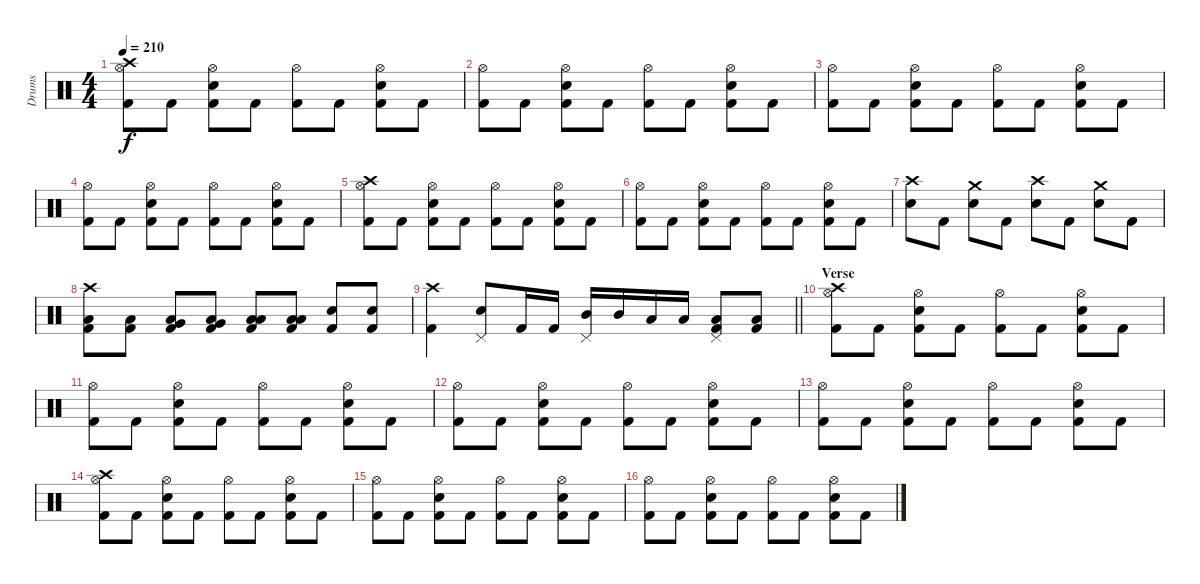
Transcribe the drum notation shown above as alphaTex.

\track ("Drums" "Drums") {instrument percussion}
\staff {score}
\articulation defaults
\ts (4 4)
\tempo 210
\clef neutral
\ks c
("Crash high (hit)" "Hi-Hat (open)" "Kick (hit) 2").8{dy f} "Kick (hit) 2".8 ("Hi-Hat (open)" "Snare (hit) 2" "Kick (hit) 2").8 "Kick (hit) 2".8 ("Hi-Hat (open)" "Kick (hit) 2").8 "Kick (hit) 2".8 ("Hi-Hat (open)" "Snare (hit) 2" "Kick (hit) 2").8 "Kick (hit) 2".8 |
("Hi-Hat (open)" "Kick (hit) 2").8 "Kick (hit) 2".8 ("Hi-Hat (open)" "Snare (hit) 2" "Kick (hit) 2").8 "Kick (hit) 2".8 ("Hi-Hat (open)" "Kick (hit) 2").8 "Kick (hit) 2".8 ("Hi-Hat (open)" "Snare (hit) 2" "Kick (hit) 2").8 "Kick (hit) 2".8 |
("Hi-Hat (open)" "Kick (hit) 2").8 "Kick (hit) 2".8 ("Hi-Hat (open)" "Snare (hit) 2" "Kick (hit) 2").8 "Kick (hit) 2".8 ("Hi-Hat (open)" "Kick (hit) 2").8 "Kick (hit) 2".8 ("Hi-Hat (open)" "Snare (hit) 2" "Kick (hit) 2").8 "Kick (hit) 2".8 |
("Hi-Hat (open)" "Kick (hit) 2").8 "Kick (hit) 2".8 ("Hi-Hat (open)" "Snare (hit) 2" "Kick (hit) 2").8 "Kick (hit) 2".8 ("Hi-Hat (open)" "Kick (hit) 2").8 "Kick (hit) 2".8 ("Hi-Hat (open)" "Snare (hit) 2" "Kick (hit) 2").8 "Kick (hit) 2".8 |
("Crash high (hit)" "Hi-Hat (open)" "Kick (hit) 2").8 "Kick (hit) 2".8 ("Hi-Hat (open)" "Snare (hit) 2" "Kick (hit) 2").8 "Kick (hit) 2".8 ("Hi-Hat (open)" "Kick (hit) 2").8 "Kick (hit) 2".8 ("Hi-Hat (open)" "Snare (hit) 2" "Kick (hit) 2").8 "Kick (hit) 2".8 |
("Hi-Hat (open)" "Kick (hit) 2").8 "Kick (hit) 2".8 ("Hi-Hat (open)" "Snare (hit) 2" "Kick (hit) 2").8 "Kick (hit) 2".8 ("Hi-Hat (open)" "Kick (hit) 2").8 "Kick (hit) 2".8 ("Hi-Hat (open)" "Snare (hit) 2" "Kick (hit) 2").8 "Kick (hit) 2".8 |
("Crash high (hit)" "Snare (hit) 2").8 "Kick (hit) 2".8 ("Crash medium (hit)" "Snare (hit) 2").8 "Kick (hit) 2".8 ("Crash high (hit)" "Snare (hit) 2").8 "Kick (hit) 2".8 ("Crash medium (hit)" "Snare (hit) 2").8 "Kick (hit) 2".8 |
("Crash high (hit)" "Low Floor Tom (hit)" "Kick (hit) 2").8 ("Low Floor Tom (hit)" "Kick (hit) 2").8 ("Very Low Tom (hit)" "Low Floor Tom (hit)" "Kick (hit) 2").8 ("Very Low Tom (hit)" "Low Floor Tom (hit)" "Kick (hit) 2").8 ("Low Tom (hit)" "Low Floor Tom (hit)" "Kick (hit) 2").8 ("Low Tom (hit)" "Low Floor Tom (hit)" "Kick (hit) 2").8 ("Snare (hit) 2" "Kick (hit) 2").8 ("Snare (hit) 2" "Kick (hit) 2").8 |
\barLineRight lightlight
("Crash high (hit)" "Kick (hit) 2").4 ("Pedal Hi-Hat (hit)" "Snare (hit) 2").8 "Kick (hit) 2".16 "Kick (hit) 2".16 ("Pedal Hi-Hat (hit)" "Mid Tom (hit)").16 "Mid Tom (hit)".16 "Low Tom (hit)".16 "Low Tom (hit)".16 ("Pedal Hi-Hat (hit)" "Low Floor Tom (hit)" "Kick (hit) 2").8 ("Low Floor Tom (hit)" "Kick (hit) 2").8 |
\section ("" "Verse")
("Crash high (hit)" "Hi-Hat (open)" "Kick (hit) 2").8 "Kick (hit) 2".8 ("Hi-Hat (open)" "Snare (hit) 2" "Kick (hit) 2").8 "Kick (hit) 2".8 ("Hi-Hat (open)" "Kick (hit) 2").8 "Kick (hit) 2".8 ("Hi-Hat (open)" "Snare (hit) 2" "Kick (hit) 2").8 "Kick (hit) 2".8 |
("Hi-Hat (open)" "Kick (hit) 2").8 "Kick (hit) 2".8 ("Hi-Hat (open)" "Snare (hit) 2" "Kick (hit) 2").8 "Kick (hit) 2".8 ("Hi-Hat (open)" "Kick (hit) 2").8 "Kick (hit) 2".8 ("Hi-Hat (open)" "Snare (hit) 2" "Kick (hit) 2").8 "Kick (hit) 2".8 |
("Hi-Hat (open)" "Kick (hit) 2").8 "Kick (hit) 2".8 ("Hi-Hat (open)" "Snare (hit) 2" "Kick (hit) 2").8 "Kick (hit) 2".8 ("Hi-Hat (open)" "Kick (hit) 2").8 "Kick (hit) 2".8 ("Hi-Hat (open)" "Snare (hit) 2" "Kick (hit) 2").8 "Kick (hit) 2".8 |
("Hi-Hat (open)" "Kick (hit) 2").8 "Kick (hit) 2".8 ("Hi-Hat (open)" "Snare (hit) 2" "Kick (hit) 2").8 "Kick (hit) 2".8 ("Hi-Hat (open)" "Kick (hit) 2").8 "Kick (hit) 2".8 ("Hi-Hat (open)" "Snare (hit) 2" "Kick (hit) 2").8 "Kick (hit) 2".8 |
("Crash high (hit)" "Hi-Hat (open)" "Kick (hit) 2").8 "Kick (hit) 2".8 ("Hi-Hat (open)" "Snare (hit) 2" "Kick (hit) 2").8 "Kick (hit) 2".8 ("Hi-Hat (open)" "Kick (hit) 2").8 "Kick (hit) 2".8 ("Hi-Hat (open)" "Snare (hit) 2" "Kick (hit) 2").8 "Kick (hit) 2".8 |
("Hi-Hat (open)" "Kick (hit) 2").8 "Kick (hit) 2".8 ("Hi-Hat (open)" "Snare (hit) 2" "Kick (hit) 2").8 "Kick (hit) 2".8 ("Hi-Hat (open)" "Kick (hit) 2").8 "Kick (hit) 2".8 ("Hi-Hat (open)" "Snare (hit) 2" "Kick (hit) 2").8 "Kick (hit) 2".8 |
("Hi-Hat (open)" "Kick (hit) 2").8 "Kick (hit) 2".8 ("Hi-Hat (open)" "Snare (hit) 2" "Kick (hit) 2").8 "Kick (hit) 2".8 ("Hi-Hat (open)" "Kick (hit) 2").8 "Kick (hit) 2".8 ("Hi-Hat (open)" "Snare (hit) 2" "Kick (hit) 2").8 "Kick (hit) 2".8
